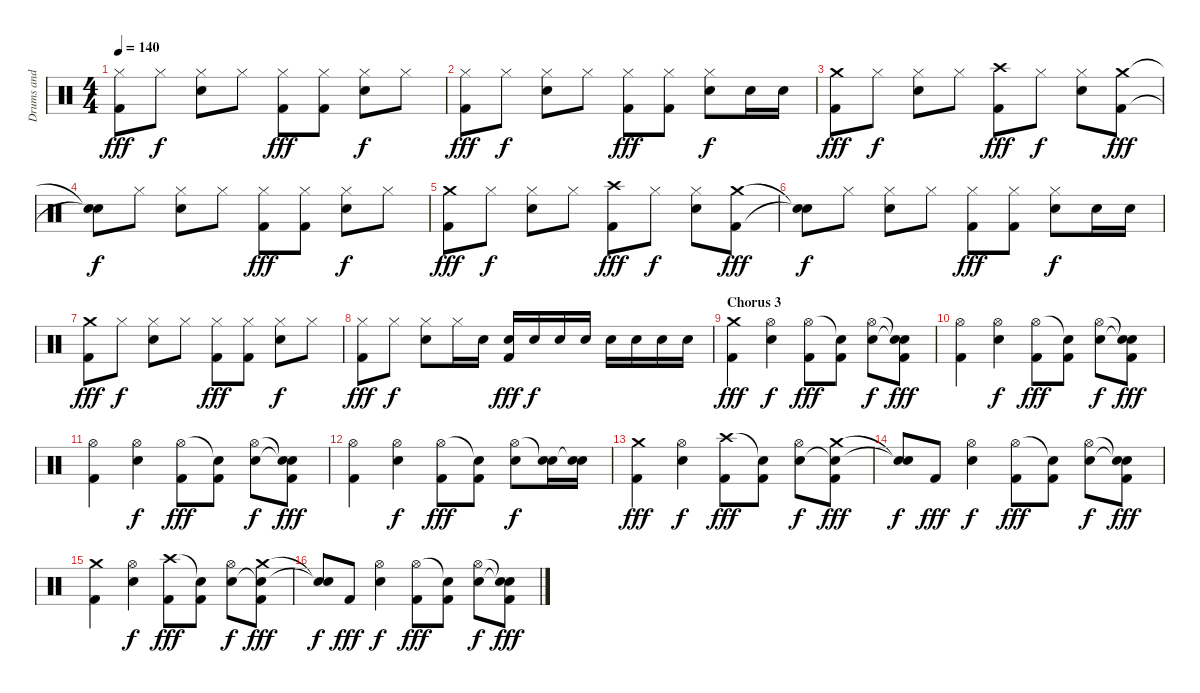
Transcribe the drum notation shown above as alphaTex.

\track ("Drums and Percussion" "Drums and ") {instrument percussion}
\staff {score}
\articulation defaults
\ts (4 4)
\tempo 140
\clef neutral
\ks c
("Hi-Hat (closed)" "Kick (hit) 2").8{dy fff} "Hi-Hat (closed)".8{dy f} ("Hi-Hat (closed)" "Snare (hit) 2").8 "Hi-Hat (closed)".8 ("Hi-Hat (closed)" "Kick (hit) 2").8{dy fff} ("Hi-Hat (closed)" "Kick (hit) 2").8 ("Hi-Hat (closed)" "Snare (hit) 2").8{dy f} "Hi-Hat (closed)".8 |
("Hi-Hat (closed)" "Kick (hit) 2").8{dy fff} "Hi-Hat (closed)".8{dy f} ("Hi-Hat (closed)" "Snare (hit) 2").8 "Hi-Hat (closed)".8 ("Hi-Hat (closed)" "Kick (hit) 2").8{dy fff} ("Hi-Hat (closed)" "Kick (hit) 2").8 ("Hi-Hat (closed)" "Snare (hit) 2").8{dy f} "Snare (hit) 2".16 "Snare (hit) 2".16 |
("Crash medium (hit)" "Kick (hit) 2").8{dy fff} "Hi-Hat (closed)".8{dy f} ("Hi-Hat (closed)" "Snare (hit) 2").8 "Hi-Hat (closed)".8 ("Crash high (hit)" "Kick (hit) 2").8{dy fff} "Hi-Hat (closed)".8{dy f} ("Hi-Hat (closed)" "Snare (hit) 2").8 ("Crash medium (hit)" "Kick (hit) 2").8{dy fff} |
("Snare (hit)"{t} "Snare (hit)"{t}).8{dy f} "Hi-Hat (closed)".8 ("Hi-Hat (closed)" "Snare (hit) 2").8 "Hi-Hat (closed)".8 ("Hi-Hat (closed)" "Kick (hit) 2").8{dy fff} ("Hi-Hat (closed)" "Kick (hit) 2").8 ("Hi-Hat (closed)" "Snare (hit) 2").8{dy f} "Hi-Hat (closed)".8 |
("Crash medium (hit)" "Kick (hit) 2").8{dy fff} "Hi-Hat (closed)".8{dy f} ("Hi-Hat (closed)" "Snare (hit) 2").8 "Hi-Hat (closed)".8 ("Crash high (hit)" "Kick (hit) 2").8{dy fff} "Hi-Hat (closed)".8{dy f} ("Hi-Hat (closed)" "Snare (hit) 2").8 ("Crash medium (hit)" "Kick (hit) 2").8{dy fff} |
("Snare (hit)"{t} "Snare (hit)"{t}).8{dy f} "Hi-Hat (closed)".8 ("Hi-Hat (closed)" "Snare (hit) 2").8 "Hi-Hat (closed)".8 ("Hi-Hat (closed)" "Kick (hit) 2").8{dy fff} ("Hi-Hat (closed)" "Kick (hit) 2").8 ("Hi-Hat (closed)" "Snare (hit) 2").8{dy f} "Snare (hit) 2".16 "Snare (hit) 2".16 |
("Crash medium (hit)" "Kick (hit) 2").8{dy fff} "Hi-Hat (closed)".8{dy f} ("Hi-Hat (closed)" "Snare (hit) 2").8 "Hi-Hat (closed)".8 ("Hi-Hat (closed)" "Kick (hit) 2").8{dy fff} ("Hi-Hat (closed)" "Kick (hit) 2").8 ("Hi-Hat (closed)" "Snare (hit) 2").8{dy f} "Hi-Hat (closed)".8 |
("Hi-Hat (closed)" "Kick (hit) 2").8{dy fff} "Hi-Hat (closed)".8{dy f} ("Hi-Hat (closed)" "Snare (hit) 2").8 "Hi-Hat (closed)".16 "Snare (hit) 2".16 ("Snare (hit) 2" "Kick (hit) 2").16{dy fff} "Snare (hit) 2".16{dy f} "Snare (hit) 2".16 "Snare (hit) 2".16 "Snare (hit) 2".16 "Snare (hit) 2".16 "Snare (hit) 2".16 "Snare (hit) 2".16 |
\section ("" "Chorus 3")
("Crash medium (hit)" "Kick (hit) 2").4{dy fff} ("Hi-Hat (open)" "Snare (hit) 2").4{dy f} ("Hi-Hat (open)" "Kick (hit) 2").8{dy fff} ("Snare (hit)"{t} "Kick (hit) 2").8 ("Hi-Hat (open)" "Snare (hit) 2").8{dy f} ("Snare (hit)"{t} "Snare (hit)"{t} "Kick (hit) 2").8{dy fff} |
("Hi-Hat (open)" "Kick (hit) 2").4 ("Hi-Hat (open)" "Snare (hit) 2").4{dy f} ("Hi-Hat (open)" "Kick (hit) 2").8{dy fff} ("Snare (hit)"{t} "Kick (hit) 2").8 ("Hi-Hat (open)" "Snare (hit) 2").8{dy f} ("Snare (hit)"{t} "Snare (hit)"{t} "Kick (hit) 2").8{dy fff} |
("Hi-Hat (open)" "Kick (hit) 2").4 ("Hi-Hat (open)" "Snare (hit) 2").4{dy f} ("Hi-Hat (open)" "Kick (hit) 2").8{dy fff} ("Snare (hit)"{t} "Kick (hit) 2").8 ("Hi-Hat (open)" "Snare (hit) 2").8{dy f} ("Snare (hit)"{t} "Snare (hit)"{t} "Kick (hit) 2").8{dy fff} |
("Hi-Hat (open)" "Kick (hit) 2").4 ("Hi-Hat (open)" "Snare (hit) 2").4{dy f} ("Hi-Hat (open)" "Kick (hit) 2").8{dy fff} ("Snare (hit)"{t} "Kick (hit) 2").8 ("Hi-Hat (open)" "Snare (hit) 2").8{dy f} ("Snare (hit)"{t} "Snare (hit) 2").16 ("Snare (hit)"{t} "Snare (hit) 2").16 |
("Crash medium (hit)" "Kick (hit) 2").4{dy fff} ("Hi-Hat (open)" "Snare (hit) 2").4{dy f} ("Crash high (hit)" "Kick (hit) 2").8{dy fff} ("Snare (hit)"{t} "Kick (hit) 2").8 ("Hi-Hat (open)" "Snare (hit) 2").8{dy f} ("Crash medium (hit)" "Snare (hit)"{t} "Kick (hit) 2").8{dy fff} |
("Snare (hit)"{t} "Snare (hit)"{t}).8{dy f} "Kick (hit) 2".8{dy fff} ("Hi-Hat (open)" "Snare (hit) 2").4{dy f} ("Hi-Hat (open)" "Kick (hit) 2").8{dy fff} ("Snare (hit)"{t} "Kick (hit) 2").8 ("Hi-Hat (open)" "Snare (hit) 2").8{dy f} ("Snare (hit)"{t} "Snare (hit)"{t} "Kick (hit) 2").8{dy fff} |
("Crash medium (hit)" "Kick (hit) 2").4 ("Hi-Hat (open)" "Snare (hit) 2").4{dy f} ("Crash high (hit)" "Kick (hit) 2").8{dy fff} ("Snare (hit)"{t} "Kick (hit) 2").8 ("Hi-Hat (open)" "Snare (hit) 2").8{dy f} ("Crash medium (hit)" "Snare (hit)"{t} "Kick (hit) 2").8{dy fff} |
("Snare (hit)"{t} "Snare (hit)"{t}).8{dy f} "Kick (hit) 2".8{dy fff} ("Hi-Hat (open)" "Snare (hit) 2").4{dy f} ("Hi-Hat (open)" "Kick (hit) 2").8{dy fff} ("Snare (hit)"{t} "Kick (hit) 2").8 ("Hi-Hat (open)" "Snare (hit) 2").8{dy f} ("Snare (hit)"{t} "Snare (hit)"{t} "Kick (hit) 2").8{dy fff}
